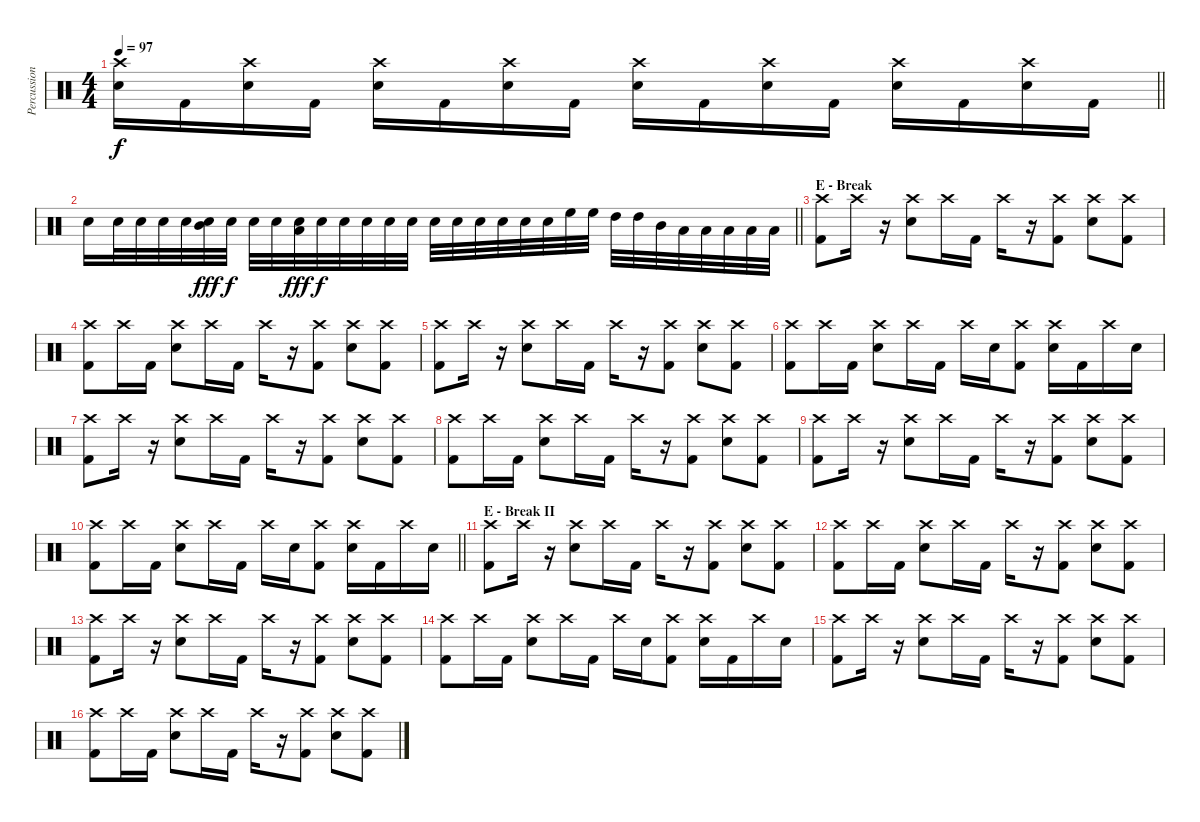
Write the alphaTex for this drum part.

\track ("Percussions" "Percussion") {instrument percussion}
\staff {score}
\articulation defaults
\ts (4 4)
\tempo 97
\clef neutral
\barLineRight lightlight
\ks c
("Crash high (hit)" "Snare (hit) 2").16{dy f} "Kick (hit) 2".16 ("Crash high (hit)" "Snare (hit) 2").16 "Kick (hit) 2".16 ("Crash high (hit)" "Snare (hit) 2").16 "Kick (hit) 2".16 ("Crash high (hit)" "Snare (hit) 2").16 "Kick (hit) 2".16 ("Crash high (hit)" "Snare (hit) 2").16 "Kick (hit) 2".16 ("Crash high (hit)" "Snare (hit) 2").16 "Kick (hit) 2".16 ("Crash high (hit)" "Snare (hit) 2").16 "Kick (hit) 2".16 ("Crash high (hit)" "Snare (hit) 2").16 "Kick (hit) 2".16 |
\barLineRight lightlight "Snare (hit) 2".16 "Snare (hit) 2".32 "Snare (hit) 2".32 "Snare (hit) 2".32 "Snare (hit) 2".32
("Snare (hit) 2" "Mid Tom (hit)").32{dy fff} "Snare (hit) 2".32{dy f} "Snare (hit) 2".32 "Snare (hit) 2".32 ("Snare (hit) 2" "Low Tom (hit)").32{dy fff} "Snare (hit) 2".32{dy f} "Snare (hit) 2".32 "Snare (hit) 2".32 "Snare (hit) 2".32 "Snare (hit) 2".32 "Snare (hit) 2".32 "Snare (hit) 2".32 "Snare (hit) 2".32 "Snare (hit) 2".32 "Snare (hit) 2".32 "Snare (hit) 2".32 "High Floor Tom (hit)".32 "High Floor Tom (hit)".32 "High Tom (hit)".32 "High Tom (hit)".32 "Mid Tom (hit)".32 "Low Tom (hit)".32 "Low Tom (hit)".32 "Low Floor Tom (hit)".32 "Low Floor Tom (hit)".32 "Low Floor Tom (hit)".32 |
\section ("" "E - Break")
("Crash high (hit)" "Kick (hit) 2").8 "Crash high (hit)".16 r.16 ("Crash high (hit)" "Snare (hit) 2").8 "Crash high (hit)".16 "Kick (hit) 2".16 "Crash high (hit)".16 r.16 ("Crash high (hit)" "Kick (hit) 2").8 ("Crash high (hit)" "Snare (hit) 2").8 ("Crash high (hit)" "Kick (hit) 2").8 |
("Crash high (hit)" "Kick (hit) 2").8 "Crash high (hit)".16 "Kick (hit) 2".16 ("Crash high (hit)" "Snare (hit) 2").8 "Crash high (hit)".16 "Kick (hit) 2".16 "Crash high (hit)".16 r.16 ("Crash high (hit)" "Kick (hit) 2").8 ("Crash high (hit)" "Snare (hit) 2").8 ("Crash high (hit)" "Kick (hit) 2").8 |
("Crash high (hit)" "Kick (hit) 2").8 "Crash high (hit)".16 r.16 ("Crash high (hit)" "Snare (hit) 2").8 "Crash high (hit)".16 "Kick (hit) 2".16 "Crash high (hit)".16 r.16 ("Crash high (hit)" "Kick (hit) 2").8 ("Crash high (hit)" "Snare (hit) 2").8 ("Crash high (hit)" "Kick (hit) 2").8 |
("Crash high (hit)" "Kick (hit) 2").8 "Crash high (hit)".16 "Kick (hit) 2".16 ("Crash high (hit)" "Snare (hit) 2").8 "Crash high (hit)".16 "Kick (hit) 2".16 "Crash high (hit)".16 "Snare (hit) 2".16 ("Crash high (hit)" "Kick (hit) 2").8 ("Crash high (hit)" "Snare (hit) 2").16 "Kick (hit) 2".16 "Crash high (hit)".16 "Snare (hit) 2".16 |
("Crash high (hit)" "Kick (hit) 2").8 "Crash high (hit)".16 r.16 ("Crash high (hit)" "Snare (hit) 2").8 "Crash high (hit)".16 "Kick (hit) 2".16 "Crash high (hit)".16 r.16 ("Crash high (hit)" "Kick (hit) 2").8 ("Crash high (hit)" "Snare (hit) 2").8 ("Crash high (hit)" "Kick (hit) 2").8 |
("Crash high (hit)" "Kick (hit) 2").8 "Crash high (hit)".16 "Kick (hit) 2".16 ("Crash high (hit)" "Snare (hit) 2").8 "Crash high (hit)".16 "Kick (hit) 2".16 "Crash high (hit)".16 r.16 ("Crash high (hit)" "Kick (hit) 2").8 ("Crash high (hit)" "Snare (hit) 2").8 ("Crash high (hit)" "Kick (hit) 2").8 |
("Crash high (hit)" "Kick (hit) 2").8 "Crash high (hit)".16 r.16 ("Crash high (hit)" "Snare (hit) 2").8 "Crash high (hit)".16 "Kick (hit) 2".16 "Crash high (hit)".16 r.16 ("Crash high (hit)" "Kick (hit) 2").8 ("Crash high (hit)" "Snare (hit) 2").8 ("Crash high (hit)" "Kick (hit) 2").8 |
\barLineRight lightlight
("Crash high (hit)" "Kick (hit) 2").8 "Crash high (hit)".16 "Kick (hit) 2".16 ("Crash high (hit)" "Snare (hit) 2").8 "Crash high (hit)".16 "Kick (hit) 2".16 "Crash high (hit)".16 "Snare (hit) 2".16 ("Crash high (hit)" "Kick (hit) 2").8 ("Crash high (hit)" "Snare (hit) 2").16 "Kick (hit) 2".16 "Crash high (hit)".16 "Snare (hit) 2".16 |
\section ("" "E - Break II")
("Crash high (hit)" "Kick (hit) 2").8 "Crash high (hit)".16 r.16 ("Crash high (hit)" "Snare (hit) 2").8 "Crash high (hit)".16 "Kick (hit) 2".16 "Crash high (hit)".16 r.16 ("Crash high (hit)" "Kick (hit) 2").8 ("Crash high (hit)" "Snare (hit) 2").8 ("Crash high (hit)" "Kick (hit) 2").8 |
("Crash high (hit)" "Kick (hit) 2").8 "Crash high (hit)".16 "Kick (hit) 2".16 ("Crash high (hit)" "Snare (hit) 2").8 "Crash high (hit)".16 "Kick (hit) 2".16 "Crash high (hit)".16 r.16 ("Crash high (hit)" "Kick (hit) 2").8 ("Crash high (hit)" "Snare (hit) 2").8 ("Crash high (hit)" "Kick (hit) 2").8 |
("Crash high (hit)" "Kick (hit) 2").8 "Crash high (hit)".16 r.16 ("Crash high (hit)" "Snare (hit) 2").8 "Crash high (hit)".16 "Kick (hit) 2".16 "Crash high (hit)".16 r.16 ("Crash high (hit)" "Kick (hit) 2").8 ("Crash high (hit)" "Snare (hit) 2").8 ("Crash high (hit)" "Kick (hit) 2").8 |
("Crash high (hit)" "Kick (hit) 2").8 "Crash high (hit)".16 "Kick (hit) 2".16 ("Crash high (hit)" "Snare (hit) 2").8 "Crash high (hit)".16 "Kick (hit) 2".16 "Crash high (hit)".16 "Snare (hit) 2".16 ("Crash high (hit)" "Kick (hit) 2").8 ("Crash high (hit)" "Snare (hit) 2").16 "Kick (hit) 2".16 "Crash high (hit)".16 "Snare (hit) 2".16 |
("Crash high (hit)" "Kick (hit) 2").8 "Crash high (hit)".16 r.16 ("Crash high (hit)" "Snare (hit) 2").8 "Crash high (hit)".16 "Kick (hit) 2".16 "Crash high (hit)".16 r.16 ("Crash high (hit)" "Kick (hit) 2").8 ("Crash high (hit)" "Snare (hit) 2").8 ("Crash high (hit)" "Kick (hit) 2").8 |
("Crash high (hit)" "Kick (hit) 2").8 "Crash high (hit)".16 "Kick (hit) 2".16 ("Crash high (hit)" "Snare (hit) 2").8 "Crash high (hit)".16 "Kick (hit) 2".16 "Crash high (hit)".16 r.16 ("Crash high (hit)" "Kick (hit) 2").8 ("Crash high (hit)" "Snare (hit) 2").8 ("Crash high (hit)" "Kick (hit) 2").8
